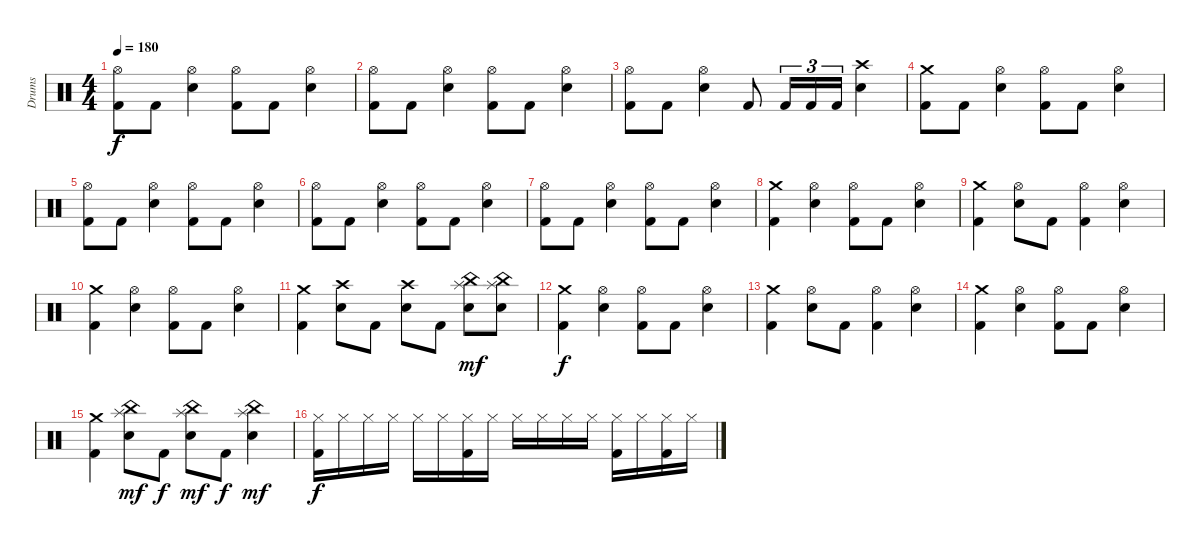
\track ("Drums" "Drums") {instrument percussion}
\staff {score}
\articulation defaults
\ts (4 4)
\tempo 180
\clef neutral
\ks c
("Kick (hit) 2" "Hi-Hat (open)").8{dy f} "Kick (hit) 2".8 ("Electric Snare (hit)" "Hi-Hat (open)").4 ("Kick (hit) 2" "Hi-Hat (open)").8 "Kick (hit) 2".8 ("Electric Snare (hit)" "Hi-Hat (open)").4 |
("Kick (hit) 2" "Hi-Hat (open)").8 "Kick (hit) 2".8 ("Electric Snare (hit)" "Hi-Hat (open)").4 ("Kick (hit) 2" "Hi-Hat (open)").8 "Kick (hit) 2".8 ("Electric Snare (hit)" "Hi-Hat (open)").4 |
("Kick (hit) 2" "Hi-Hat (open)").8 "Kick (hit) 2".8 ("Electric Snare (hit)" "Hi-Hat (open)").4 "Kick (hit) 2".8 "Kick (hit) 2".16{tu (3 2)} "Kick (hit) 2".16{tu (3 2)} "Kick (hit) 2".16{tu (3 2)} ("Electric Snare (hit)" "Crash high (hit)").4 |
("Kick (hit) 2" "Crash medium (hit)").8 "Kick (hit) 2".8 ("Electric Snare (hit)" "Hi-Hat (open)").4 ("Kick (hit) 2" "Hi-Hat (open)").8 "Kick (hit) 2".8 ("Electric Snare (hit)" "Hi-Hat (open)").4 |
("Kick (hit) 2" "Hi-Hat (open)").8 "Kick (hit) 2".8 ("Electric Snare (hit)" "Hi-Hat (open)").4 ("Kick (hit) 2" "Hi-Hat (open)").8 "Kick (hit) 2".8 ("Electric Snare (hit)" "Hi-Hat (open)").4 |
("Kick (hit) 2" "Hi-Hat (open)").8 "Kick (hit) 2".8 ("Electric Snare (hit)" "Hi-Hat (open)").4 ("Kick (hit) 2" "Hi-Hat (open)").8 "Kick (hit) 2".8 ("Electric Snare (hit)" "Hi-Hat (open)").4 |
("Kick (hit) 2" "Hi-Hat (open)").8 "Kick (hit) 2".8 ("Electric Snare (hit)" "Hi-Hat (open)").4 ("Kick (hit) 2" "Hi-Hat (open)").8 "Kick (hit) 2".8 ("Electric Snare (hit)" "Hi-Hat (open)").4 |
("Kick (hit) 2" "Crash medium (hit)").4 ("Electric Snare (hit)" "Hi-Hat (open)").4 ("Kick (hit) 2" "Hi-Hat (open)").8 "Kick (hit) 2".8 ("Electric Snare (hit)" "Hi-Hat (open)").4 |
("Kick (hit) 2" "Crash medium (hit)").4 ("Electric Snare (hit)" "Hi-Hat (open)").8 "Kick (hit) 2".8 ("Kick (hit) 2" "Hi-Hat (open)").4 ("Electric Snare (hit)" "Hi-Hat (open)").4 |
("Kick (hit) 2" "Crash medium (hit)").4 ("Electric Snare (hit)" "Hi-Hat (open)").4 ("Kick (hit) 2" "Hi-Hat (open)").8 "Kick (hit) 2".8 ("Electric Snare (hit)" "Hi-Hat (open)").4 |
("Kick (hit) 2" "Crash medium (hit)").4 ("Electric Snare (hit)" "Crash high (hit)").8 "Kick (hit) 2".8 ("Electric Snare (hit)" "Crash high (hit)").8 "Kick (hit) 2".8 ("Splash (hit)" "Electric Snare (hit)" "China (hit)").8{dy mf} ("Splash (hit)" "Electric Snare (hit)" "China (hit)").8 |
("Kick (hit) 2" "Crash medium (hit)").4{dy f} ("Electric Snare (hit)" "Hi-Hat (open)").4 ("Kick (hit) 2" "Hi-Hat (open)").8 "Kick (hit) 2".8 ("Electric Snare (hit)" "Hi-Hat (open)").4 |
("Kick (hit) 2" "Crash medium (hit)").4 ("Electric Snare (hit)" "Hi-Hat (open)").8 "Kick (hit) 2".8 ("Kick (hit) 2" "Hi-Hat (open)").4 ("Electric Snare (hit)" "Hi-Hat (open)").4 |
("Kick (hit) 2" "Crash medium (hit)").4 ("Electric Snare (hit)" "Hi-Hat (open)").4 ("Kick (hit) 2" "Hi-Hat (open)").8 "Kick (hit) 2".8 ("Electric Snare (hit)" "Hi-Hat (open)").4 |
("Kick (hit) 2" "Crash medium (hit)").4 ("Splash (hit)" "Electric Snare (hit)" "China (hit)").8{dy mf} "Kick (hit) 2".8{dy f} ("Splash (hit)" "Electric Snare (hit)" "China (hit)").8{dy mf} "Kick (hit) 2".8{dy f} ("Splash (hit)" "Electric Snare (hit)" "China (hit)").4{dy mf} |
("Kick (hit) 2" "Hi-Hat (closed)").16{dy f} "Hi-Hat (closed)".16 "Hi-Hat (closed)".16 "Hi-Hat (closed)".16 "Hi-Hat (closed)".16 "Hi-Hat (closed)".16 ("Kick (hit) 2" "Hi-Hat (closed)").16 "Hi-Hat (closed)".16 "Hi-Hat (closed)".16 "Hi-Hat (closed)".16 "Hi-Hat (closed)".16 "Hi-Hat (closed)".16 ("Kick (hit) 2" "Hi-Hat (closed)").16 "Hi-Hat (closed)".16 ("Kick (hit) 2" "Hi-Hat (closed)").16 "Hi-Hat (closed)".16
